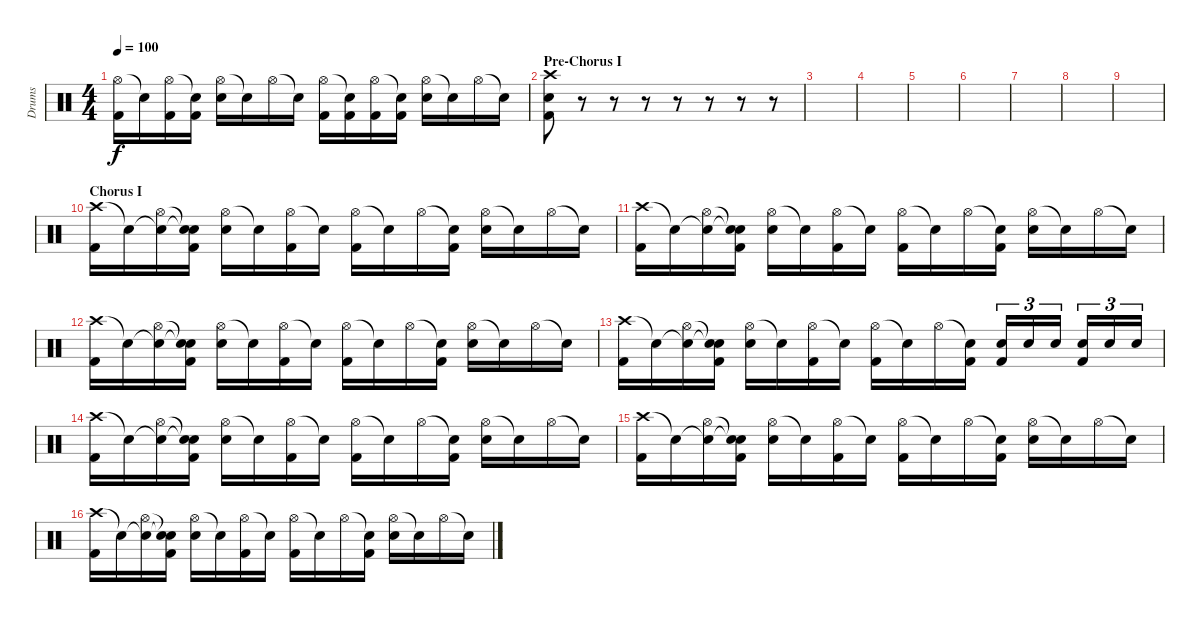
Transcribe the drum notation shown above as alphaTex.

\track ("Drums" "Drums") {instrument percussion}
\staff {score}
\articulation defaults
\ts (4 4)
\tempo 100
\clef neutral
\ks c
("Hi-Hat (open)" "Kick (hit) 2").16{dy f} "Snare (hit)"{t}.16 ("Hi-Hat (open)" "Kick (hit) 2").16 ("Snare (hit)"{t} "Kick (hit) 2").16 ("Hi-Hat (open)" "Electric Snare (hit)").16 "Snare (hit)"{t}.16 "Hi-Hat (open)".16 "Snare (hit)"{t}.16 ("Hi-Hat (open)" "Kick (hit) 2").16 ("Snare (hit)"{t} "Kick (hit) 2").16 ("Hi-Hat (open)" "Kick (hit) 2").16 ("Snare (hit)"{t} "Kick (hit) 2").16 ("Hi-Hat (open)" "Electric Snare (hit)").16 "Snare (hit)"{t}.16 "Hi-Hat (open)".16 "Snare (hit)"{t}.16 |
\section ("" "Pre-Chorus I")
("Crash high (hit)" "Electric Snare (hit)" "Kick (hit) 2").8 r.8 r.8 r.8 r.8 r.8 r.8 r.8 |
|
|
|
|
|
|
|
\section ("" "Chorus I")
("Crash high (hit)" "Kick (hit) 2").16 "Snare (hit)"{t}.16 ("Snare (hit)"{t} "Hi-Hat (open)").16 ("Snare (hit)"{t} "Snare (hit)"{t} "Kick (hit) 2").16 ("Hi-Hat (open)" "Electric Snare (hit)").16 "Snare (hit)"{t}.16 ("Hi-Hat (open)" "Kick (hit) 2").16 "Snare (hit)"{t}.16 ("Hi-Hat (open)" "Kick (hit) 2").16 "Snare (hit)"{t}.16 "Hi-Hat (open)".16 ("Snare (hit)"{t} "Kick (hit) 2").16 ("Hi-Hat (open)" "Electric Snare (hit)").16 "Snare (hit)"{t}.16 "Hi-Hat (open)".16 "Snare (hit)"{t}.16 |
("Crash high (hit)" "Kick (hit) 2").16 "Snare (hit)"{t}.16 ("Snare (hit)"{t} "Hi-Hat (open)").16 ("Snare (hit)"{t} "Snare (hit)"{t} "Kick (hit) 2").16 ("Hi-Hat (open)" "Electric Snare (hit)").16 "Snare (hit)"{t}.16 ("Hi-Hat (open)" "Kick (hit) 2").16 "Snare (hit)"{t}.16 ("Hi-Hat (open)" "Kick (hit) 2").16 "Snare (hit)"{t}.16 "Hi-Hat (open)".16 ("Snare (hit)"{t} "Kick (hit) 2").16 ("Hi-Hat (open)" "Electric Snare (hit)").16 "Snare (hit)"{t}.16 "Hi-Hat (open)".16 "Snare (hit)"{t}.16 |
("Crash high (hit)" "Kick (hit) 2").16 "Snare (hit)"{t}.16 ("Snare (hit)"{t} "Hi-Hat (open)").16 ("Snare (hit)"{t} "Snare (hit)"{t} "Kick (hit) 2").16 ("Hi-Hat (open)" "Electric Snare (hit)").16 "Snare (hit)"{t}.16 ("Hi-Hat (open)" "Kick (hit) 2").16 "Snare (hit)"{t}.16 ("Hi-Hat (open)" "Kick (hit) 2").16 "Snare (hit)"{t}.16 "Hi-Hat (open)".16 ("Snare (hit)"{t} "Kick (hit) 2").16 ("Hi-Hat (open)" "Electric Snare (hit)").16 "Snare (hit)"{t}.16 "Hi-Hat (open)".16 "Snare (hit)"{t}.16 |
("Crash high (hit)" "Kick (hit) 2").16 "Snare (hit)"{t}.16 ("Snare (hit)"{t} "Hi-Hat (open)").16 ("Snare (hit)"{t} "Snare (hit)"{t} "Kick (hit) 2").16 ("Hi-Hat (open)" "Electric Snare (hit)").16 "Snare (hit)"{t}.16 ("Hi-Hat (open)" "Kick (hit) 2").16 "Snare (hit)"{t}.16 ("Hi-Hat (open)" "Kick (hit) 2").16 "Snare (hit)"{t}.16 "Hi-Hat (open)".16 ("Snare (hit)"{t} "Kick (hit) 2").16 ("Electric Snare (hit)" "Kick (hit) 2").16{tu (3 2)} "Electric Snare (hit)".16{tu (3 2)} "Electric Snare (hit)".16{tu (3 2)} ("Electric Snare (hit)" "Kick (hit) 2").16{tu (3 2)} "Electric Snare (hit)".16{tu (3 2)} "Electric Snare (hit)".16{tu (3 2)} |
("Crash high (hit)" "Kick (hit) 2").16 "Snare (hit)"{t}.16 ("Snare (hit)"{t} "Hi-Hat (open)").16 ("Snare (hit)"{t} "Snare (hit)"{t} "Kick (hit) 2").16 ("Hi-Hat (open)" "Electric Snare (hit)").16 "Snare (hit)"{t}.16 ("Hi-Hat (open)" "Kick (hit) 2").16 "Snare (hit)"{t}.16 ("Hi-Hat (open)" "Kick (hit) 2").16 "Snare (hit)"{t}.16 "Hi-Hat (open)".16 ("Snare (hit)"{t} "Kick (hit) 2").16 ("Hi-Hat (open)" "Electric Snare (hit)").16 "Snare (hit)"{t}.16 "Hi-Hat (open)".16 "Snare (hit)"{t}.16 |
("Crash high (hit)" "Kick (hit) 2").16 "Snare (hit)"{t}.16 ("Snare (hit)"{t} "Hi-Hat (open)").16 ("Snare (hit)"{t} "Snare (hit)"{t} "Kick (hit) 2").16 ("Hi-Hat (open)" "Electric Snare (hit)").16 "Snare (hit)"{t}.16 ("Hi-Hat (open)" "Kick (hit) 2").16 "Snare (hit)"{t}.16 ("Hi-Hat (open)" "Kick (hit) 2").16 "Snare (hit)"{t}.16 "Hi-Hat (open)".16 ("Snare (hit)"{t} "Kick (hit) 2").16 ("Hi-Hat (open)" "Electric Snare (hit)").16 "Snare (hit)"{t}.16 "Hi-Hat (open)".16 "Snare (hit)"{t}.16 |
("Crash high (hit)" "Kick (hit) 2").16 "Snare (hit)"{t}.16 ("Snare (hit)"{t} "Hi-Hat (open)").16 ("Snare (hit)"{t} "Snare (hit)"{t} "Kick (hit) 2").16 ("Hi-Hat (open)" "Electric Snare (hit)").16 "Snare (hit)"{t}.16 ("Hi-Hat (open)" "Kick (hit) 2").16 "Snare (hit)"{t}.16 ("Hi-Hat (open)" "Kick (hit) 2").16 "Snare (hit)"{t}.16 "Hi-Hat (open)".16 ("Snare (hit)"{t} "Kick (hit) 2").16 ("Hi-Hat (open)" "Electric Snare (hit)").16 "Snare (hit)"{t}.16 "Hi-Hat (open)".16 "Snare (hit)"{t}.16
